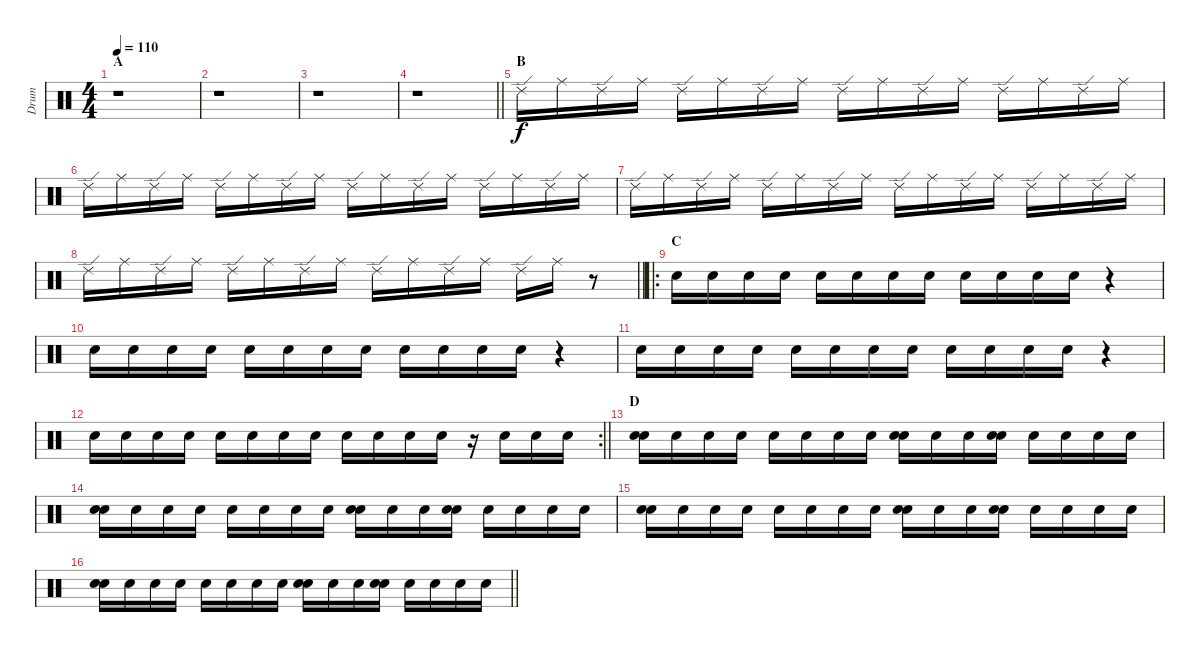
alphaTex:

\track ("Drum" "Drum") {instrument percussion}
\staff {score}
\articulation defaults
\ts (4 4)
\section ("" "A")
\tempo 110
\clef neutral
\ks c
r.1{dy f} |
r.1 |
r.1 |
\barLineRight lightlight
r.1 |
\section ("" "B")
"Ride (edge) 2".16 "Ride (middle)".16 "Ride (edge) 2".16 "Ride (middle)".16 "Ride (edge) 2".16 "Ride (middle)".16 "Ride (edge) 2".16 "Ride (middle)".16 "Ride (edge) 2".16 "Ride (middle)".16 "Ride (edge) 2".16 "Ride (middle)".16 "Ride (edge) 2".16 "Ride (middle)".16 "Ride (edge) 2".16 "Ride (middle)".16 |
"Ride (edge) 2".16 "Ride (middle)".16 "Ride (edge) 2".16 "Ride (middle)".16 "Ride (edge) 2".16 "Ride (middle)".16 "Ride (edge) 2".16 "Ride (middle)".16 "Ride (edge) 2".16 "Ride (middle)".16 "Ride (edge) 2".16 "Ride (middle)".16 "Ride (edge) 2".16 "Ride (middle)".16 "Ride (edge) 2".16 "Ride (middle)".16 |
"Ride (edge) 2".16 "Ride (middle)".16 "Ride (edge) 2".16 "Ride (middle)".16 "Ride (edge) 2".16 "Ride (middle)".16 "Ride (edge) 2".16 "Ride (middle)".16 "Ride (edge) 2".16 "Ride (middle)".16 "Ride (edge) 2".16 "Ride (middle)".16 "Ride (edge) 2".16 "Ride (middle)".16 "Ride (edge) 2".16 "Ride (middle)".16 |
\barLineRight lightlight "Ride (edge) 2".16 "Ride (middle)".16 "Ride (edge) 2".16 "Ride (middle)".16 "Ride (edge) 2".16 "Ride (middle)".16 "Ride (edge) 2".16 "Ride (middle)".16 "Ride (edge) 2".16 "Ride (middle)".16 "Ride (edge) 2".16 "Ride (middle)".16 "Ride (edge) 2".16 "Ride (middle)".16
r.8 |
\ro
\section ("" "C")
"Snare (hit) 2".16 "Snare (hit) 2".16 "Snare (hit) 2".16 "Snare (hit) 2".16 "Snare (hit) 2".16 "Snare (hit) 2".16 "Snare (hit) 2".16 "Snare (hit) 2".16 "Snare (hit) 2".16 "Snare (hit) 2".16 "Snare (hit) 2".16 "Snare (hit) 2".16 r.4 |
"Snare (hit) 2".16 "Snare (hit) 2".16 "Snare (hit) 2".16 "Snare (hit) 2".16 "Snare (hit) 2".16 "Snare (hit) 2".16 "Snare (hit) 2".16 "Snare (hit) 2".16 "Snare (hit) 2".16 "Snare (hit) 2".16 "Snare (hit) 2".16 "Snare (hit) 2".16 r.4 |
"Snare (hit) 2".16 "Snare (hit) 2".16 "Snare (hit) 2".16 "Snare (hit) 2".16 "Snare (hit) 2".16 "Snare (hit) 2".16 "Snare (hit) 2".16 "Snare (hit) 2".16 "Snare (hit) 2".16 "Snare (hit) 2".16 "Snare (hit) 2".16 "Snare (hit) 2".16 r.4 |
\rc 2
\barLineRight lightlight "Snare (hit) 2".16 "Snare (hit) 2".16 "Snare (hit) 2".16 "Snare (hit) 2".16 "Snare (hit) 2".16 "Snare (hit) 2".16 "Snare (hit) 2".16 "Snare (hit) 2".16 "Snare (hit) 2".16 "Snare (hit) 2".16 "Snare (hit) 2".16 "Snare (hit) 2".16
r.16 "Snare (hit) 2".16 "Snare (hit) 2".16 "Snare (hit) 2".16 |
\section ("" "D")
("Electric Snare (hit)" "Snare (hit) 2").16 "Snare (hit) 2".16 "Snare (hit) 2".16 "Snare (hit) 2".16 "Snare (hit) 2".16 "Snare (hit) 2".16 "Snare (hit) 2".16 "Snare (hit) 2".16 ("Electric Snare (hit)" "Snare (hit) 2").16 "Snare (hit) 2".16 "Snare (hit) 2".16 ("Electric Snare (hit)" "Snare (hit) 2").16 "Snare (hit) 2".16 "Snare (hit) 2".16 "Snare (hit) 2".16 "Snare (hit) 2".16 |
("Electric Snare (hit)" "Snare (hit) 2").16 "Snare (hit) 2".16 "Snare (hit) 2".16 "Snare (hit) 2".16 "Snare (hit) 2".16 "Snare (hit) 2".16 "Snare (hit) 2".16 "Snare (hit) 2".16 ("Electric Snare (hit)" "Snare (hit) 2").16 "Snare (hit) 2".16 "Snare (hit) 2".16 ("Electric Snare (hit)" "Snare (hit) 2").16 "Snare (hit) 2".16 "Snare (hit) 2".16 "Snare (hit) 2".16 "Snare (hit) 2".16 |
("Electric Snare (hit)" "Snare (hit) 2").16 "Snare (hit) 2".16 "Snare (hit) 2".16 "Snare (hit) 2".16 "Snare (hit) 2".16 "Snare (hit) 2".16 "Snare (hit) 2".16 "Snare (hit) 2".16 ("Electric Snare (hit)" "Snare (hit) 2").16 "Snare (hit) 2".16 "Snare (hit) 2".16 ("Electric Snare (hit)" "Snare (hit) 2").16 "Snare (hit) 2".16 "Snare (hit) 2".16 "Snare (hit) 2".16 "Snare (hit) 2".16 |
\barLineRight lightlight
("Electric Snare (hit)" "Snare (hit) 2").16 "Snare (hit) 2".16 "Snare (hit) 2".16 "Snare (hit) 2".16 "Snare (hit) 2".16 "Snare (hit) 2".16 "Snare (hit) 2".16 "Snare (hit) 2".16 ("Electric Snare (hit)" "Snare (hit) 2").16 "Snare (hit) 2".16 "Snare (hit) 2".16 ("Electric Snare (hit)" "Snare (hit) 2").16 "Snare (hit) 2".16 "Snare (hit) 2".16 "Snare (hit) 2".16 "Snare (hit) 2".16
